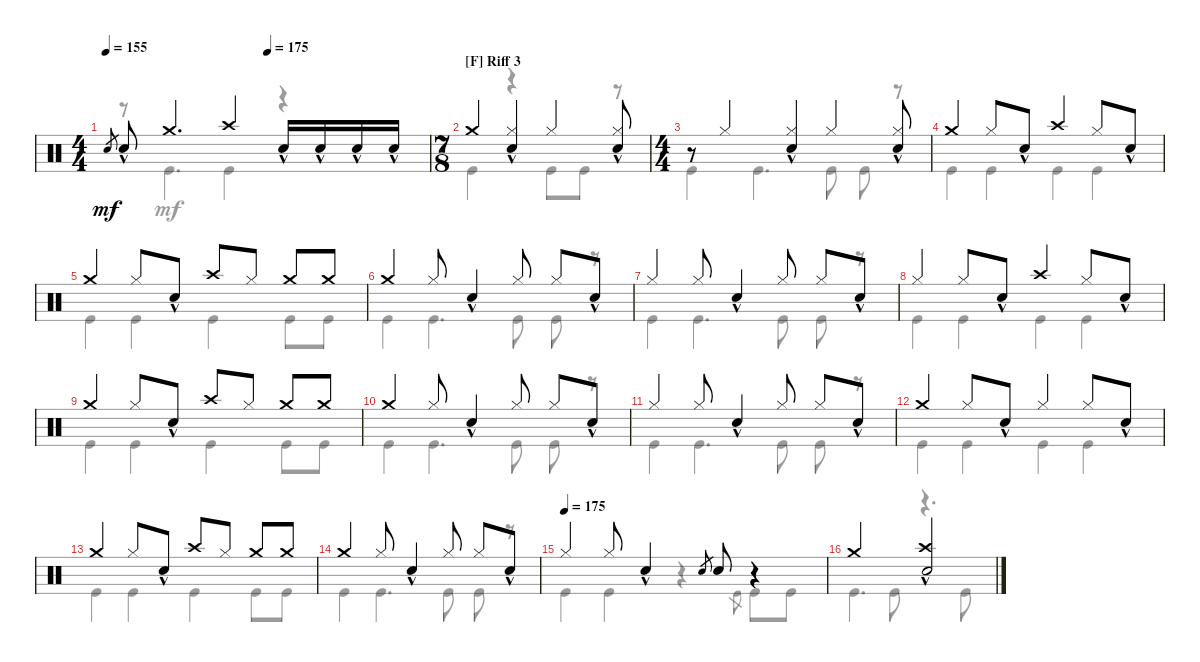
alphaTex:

\defaultSystemsLayout 4
\bracketExtendMode groupsimilarinstruments
\singleTrackTrackNamePolicy hidden
\multiTrackTrackNamePolicy hidden
\firstSystemTrackNameOrientation horizontal
\otherSystemsTrackNameOrientation horizontal
\track ("Nicko McBrain" "Drums") {instrument percussion}
\staff {score}
\articulation defaults
\voice
\ts (4 4)
\tempo 155
\tempo (175 0.5)
\clef neutral
\scale
1.02648
\ks c "Snare (hit) 2".8{gr dy mf} "Snare (hit) 2"{hac}.8 "Crash medium (hit)".4{d} "Crash high (hit)".4 "Snare (hit) 2"{hac}.16 "Snare (hit) 2"{hac}.16 "Snare (hit) 2"{hac}.16 "Snare (hit) 2"{hac}.16
|
\ts (7 8)
\section ("F" "Riff 3")
\scale
0.973518 "Crash medium (hit)".4 ("Hi-Hat (closed)" "Snare (hit) 2"{hac}).4 "Hi-Hat (closed)".4 ("Hi-Hat (closed)" "Snare (hit) 2"{hac}).8 |
\ts (4 4)
\scale
1.05675 r.8 "Hi-Hat (closed)".4 ("Hi-Hat (closed)" "Snare (hit) 2"{hac}).4 "Hi-Hat (closed)".4 ("Snare (hit) 2"{hac} "Hi-Hat (closed)").8 |
\scale
0.943253 "Crash medium (hit)".4 "Hi-Hat (closed)".8 "Snare (hit) 2"{hac}.8 "Crash high (hit)".4 "Hi-Hat (closed)".8 "Snare (hit) 2"{hac}.8 |
\scale
1.02648 "Crash medium (hit)".4 "Hi-Hat (closed)".8 "Snare (hit) 2"{hac}.8 "Crash high (hit)".8 "Hi-Hat (closed)".8 "Crash medium (hit)".8 "Crash medium (hit)".8 |
\scale
0.973518 "Crash medium (hit)".4 "Hi-Hat (closed)".8 "Snare (hit) 2"{hac}.4 "Hi-Hat (closed)".8 "Hi-Hat (closed)".8 "Snare (hit) 2"{hac}.8 |
\scale
1.02648 "Hi-Hat (closed)".4 "Hi-Hat (closed)".8 "Snare (hit) 2"{hac}.4 "Hi-Hat (closed)".8 "Hi-Hat (closed)".8 "Snare (hit) 2"{hac}.8 |
\scale
0.973518 "Hi-Hat (closed)".4 "Hi-Hat (closed)".8 "Snare (hit) 2"{hac}.8 "Crash high (hit)".4 "Hi-Hat (closed)".8 "Snare (hit) 2"{hac}.8 |
\scale
1.02648 "Crash medium (hit)".4 "Hi-Hat (closed)".8 "Snare (hit) 2"{hac}.8 "Crash high (hit)".8 "Hi-Hat (closed)".8 "Crash medium (hit)".8 "Crash medium (hit)".8 |
\scale
0.973518 "Crash medium (hit)".4 "Hi-Hat (closed)".8 "Snare (hit) 2"{hac}.4 "Hi-Hat (closed)".8 "Hi-Hat (closed)".8 "Snare (hit) 2"{hac}.8 |
\scale
1.02648 "Hi-Hat (closed)".4 "Hi-Hat (closed)".8 "Snare (hit) 2"{hac}.4 "Hi-Hat (closed)".8 "Hi-Hat (closed)".8 "Snare (hit) 2"{hac}.8 |
\scale
0.973518 "Crash medium (hit)".4 "Hi-Hat (closed)".8 "Snare (hit) 2"{hac}.8 "Hi-Hat (closed)".4 "Hi-Hat (closed)".8 "Snare (hit) 2"{hac}.8 |
\scale
1.02648 "Crash medium (hit)".4 "Hi-Hat (closed)".8 "Snare (hit) 2"{hac}.8 "Crash high (hit)".8 "Hi-Hat (closed)".8 "Crash medium (hit)".8 "Crash medium (hit)".8 |
\scale
0.973518 "Crash medium (hit)".4 "Hi-Hat (closed)".8 "Snare (hit) 2"{hac}.4 "Hi-Hat (closed)".8 "Hi-Hat (closed)".8 "Snare (hit) 2"{hac}.8 |
\tempo 175
\scale
1.02648 "Hi-Hat (closed)".4 "Hi-Hat (closed)".8 "Snare (hit) 2"{hac}.4 "Snare (hit) 2".8{gr} "Snare (hit) 2".8 r.4 |
\scale
0.973518 "Crash medium (hit)".2 ("Crash high (hit)" "Snare (hit) 2"{hac}).2
\voice
\clef neutral
\ottava regular
\simile none
\scale
1.02648
\ks c
r.8{dy mf} "Kick (hit)".4{d} "Kick (hit)".4 r.4 |
\scale
0.973518 "Kick (hit)".4 r.4 "Kick (hit)".8 "Kick (hit)".8 r.8 |
\scale
1.05675 "Kick (hit)".4 "Kick (hit)".4{d} "Kick (hit)".8 "Kick (hit)".8 r.8 |
\scale
0.943253 "Kick (hit)".4 "Kick (hit)".4 "Kick (hit)".4 "Kick (hit)".4 |
\scale
1.02648 "Kick (hit)".4 "Kick (hit)".4 "Kick (hit)".4 "Kick (hit)".8 "Kick (hit)".8 |
\scale
0.973518 "Kick (hit)".4 "Kick (hit)".4{d} "Kick (hit)".8 "Kick (hit)".8 r.8 |
\scale
1.02648 "Kick (hit)".4 "Kick (hit)".4{d} "Kick (hit)".8 "Kick (hit)".8 r.8 |
\scale
0.973518 "Kick (hit)".4 "Kick (hit)".4 "Kick (hit)".4 "Kick (hit)".4 |
\scale
1.02648 "Kick (hit)".4 "Kick (hit)".4 "Kick (hit)".4 "Kick (hit)".8 "Kick (hit)".8 |
\scale
0.973518 "Kick (hit)".4 "Kick (hit)".4{d} "Kick (hit)".8 "Kick (hit)".8 r.8 |
\scale
1.02648 "Kick (hit)".4 "Kick (hit)".4{d} "Kick (hit)".8 "Kick (hit)".8 r.8 |
\scale
0.973518 "Kick (hit)".4 "Kick (hit)".4 "Kick (hit)".4 "Kick (hit)".4 |
\scale
1.02648 "Kick (hit)".4 "Kick (hit)".4 "Kick (hit)".4 "Kick (hit)".8 "Kick (hit)".8 |
\scale
0.973518 "Kick (hit)".4 "Kick (hit)".4{d} "Kick (hit)".8 "Kick (hit)".8 r.8 |
\scale
1.02648 "Kick (hit)".4 "Kick (hit)".4 r.4 "Kick (hit)".8{gr} "Kick (hit)".8 "Kick (hit)".8 |
\scale
0.973518 "Kick (hit)".4{d} "Kick (hit)".8 r.4{d} "Kick (hit)".8
